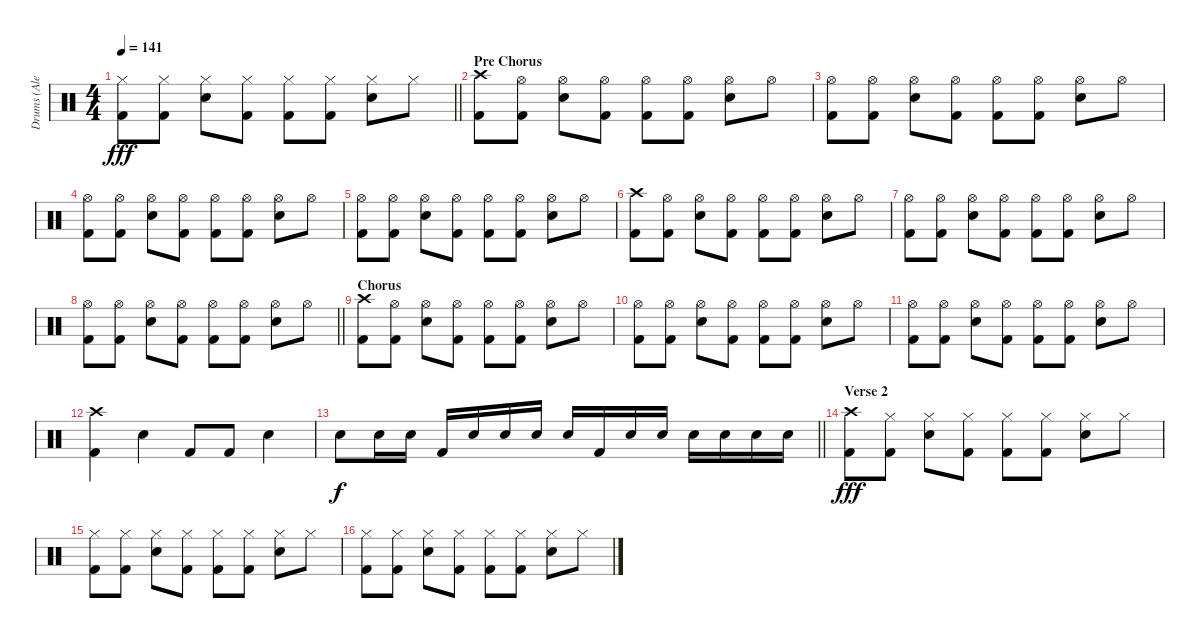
\track ("Drums (Alex Van Halen)" "Drums (Ale") {instrument percussion}
\staff {score}
\articulation defaults
\ts (4 4)
\tempo 141
\clef neutral
\barLineRight lightlight
\ks c
("Hi-Hat (closed)" "Kick (hit) 2").8{dy fff} ("Hi-Hat (closed)" "Kick (hit) 2").8 ("Hi-Hat (closed)" "Electric Snare (hit)").8 ("Hi-Hat (closed)" "Kick (hit) 2").8 ("Hi-Hat (closed)" "Kick (hit) 2").8 ("Hi-Hat (closed)" "Kick (hit) 2").8 ("Hi-Hat (closed)" "Electric Snare (hit)").8 "Hi-Hat (closed)".8 |
\section ("" "Pre Chorus")
("Crash high (hit)" "Kick (hit) 2").8 ("Hi-Hat (open)" "Kick (hit) 2").8 ("Hi-Hat (open)" "Electric Snare (hit)").8 ("Hi-Hat (open)" "Kick (hit) 2").8 ("Hi-Hat (open)" "Kick (hit) 2").8 ("Hi-Hat (open)" "Kick (hit) 2").8 ("Hi-Hat (open)" "Electric Snare (hit)").8 "Hi-Hat (open)".8 |
("Hi-Hat (open)" "Kick (hit) 2").8 ("Hi-Hat (open)" "Kick (hit) 2").8 ("Hi-Hat (open)" "Electric Snare (hit)").8 ("Hi-Hat (open)" "Kick (hit) 2").8 ("Hi-Hat (open)" "Kick (hit) 2").8 ("Hi-Hat (open)" "Kick (hit) 2").8 ("Hi-Hat (open)" "Electric Snare (hit)").8 "Hi-Hat (open)".8 |
("Hi-Hat (open)" "Kick (hit) 2").8 ("Hi-Hat (open)" "Kick (hit) 2").8 ("Hi-Hat (open)" "Electric Snare (hit)").8 ("Hi-Hat (open)" "Kick (hit) 2").8 ("Hi-Hat (open)" "Kick (hit) 2").8 ("Hi-Hat (open)" "Kick (hit) 2").8 ("Hi-Hat (open)" "Electric Snare (hit)").8 "Hi-Hat (open)".8 |
("Hi-Hat (open)" "Kick (hit) 2").8 ("Hi-Hat (open)" "Kick (hit) 2").8 ("Hi-Hat (open)" "Electric Snare (hit)").8 ("Hi-Hat (open)" "Kick (hit) 2").8 ("Hi-Hat (open)" "Kick (hit) 2").8 ("Hi-Hat (open)" "Kick (hit) 2").8 ("Hi-Hat (open)" "Electric Snare (hit)").8 "Hi-Hat (open)".8 |
("Crash high (hit)" "Kick (hit) 2").8 ("Hi-Hat (open)" "Kick (hit) 2").8 ("Hi-Hat (open)" "Electric Snare (hit)").8 ("Hi-Hat (open)" "Kick (hit) 2").8 ("Hi-Hat (open)" "Kick (hit) 2").8 ("Hi-Hat (open)" "Kick (hit) 2").8 ("Hi-Hat (open)" "Electric Snare (hit)").8 "Hi-Hat (open)".8 |
("Hi-Hat (open)" "Kick (hit) 2").8 ("Hi-Hat (open)" "Kick (hit) 2").8 ("Hi-Hat (open)" "Electric Snare (hit)").8 ("Hi-Hat (open)" "Kick (hit) 2").8 ("Hi-Hat (open)" "Kick (hit) 2").8 ("Hi-Hat (open)" "Kick (hit) 2").8 ("Hi-Hat (open)" "Electric Snare (hit)").8 "Hi-Hat (open)".8 |
\barLineRight lightlight
("Hi-Hat (open)" "Kick (hit) 2").8 ("Hi-Hat (open)" "Kick (hit) 2").8 ("Hi-Hat (open)" "Electric Snare (hit)").8 ("Hi-Hat (open)" "Kick (hit) 2").8 ("Hi-Hat (open)" "Kick (hit) 2").8 ("Hi-Hat (open)" "Kick (hit) 2").8 ("Hi-Hat (open)" "Electric Snare (hit)").8 "Hi-Hat (open)".8 |
\section ("" "Chorus")
("Crash high (hit)" "Kick (hit) 2").8 ("Hi-Hat (open)" "Kick (hit) 2").8 ("Hi-Hat (open)" "Electric Snare (hit)").8 ("Hi-Hat (open)" "Kick (hit) 2").8 ("Hi-Hat (open)" "Kick (hit) 2").8 ("Hi-Hat (open)" "Kick (hit) 2").8 ("Hi-Hat (open)" "Electric Snare (hit)").8 "Hi-Hat (open)".8 |
("Hi-Hat (open)" "Kick (hit) 2").8 ("Hi-Hat (open)" "Kick (hit) 2").8 ("Hi-Hat (open)" "Electric Snare (hit)").8 ("Hi-Hat (open)" "Kick (hit) 2").8 ("Hi-Hat (open)" "Kick (hit) 2").8 ("Hi-Hat (open)" "Kick (hit) 2").8 ("Hi-Hat (open)" "Electric Snare (hit)").8 "Hi-Hat (open)".8 |
("Hi-Hat (open)" "Kick (hit) 2").8 ("Hi-Hat (open)" "Kick (hit) 2").8 ("Hi-Hat (open)" "Electric Snare (hit)").8 ("Hi-Hat (open)" "Kick (hit) 2").8 ("Hi-Hat (open)" "Kick (hit) 2").8 ("Hi-Hat (open)" "Kick (hit) 2").8 ("Hi-Hat (open)" "Electric Snare (hit)").8 "Hi-Hat (open)".8 |
("Crash high (hit)" "Kick (hit) 2").4 "Electric Snare (hit)".4 "Kick (hit) 2".8 "Kick (hit) 2".8 "Electric Snare (hit)".4 |
\barLineRight lightlight "Electric Snare (hit)".8{dy f} "Electric Snare (hit)".16 "Electric Snare (hit)".16 "Kick (hit) 2".16 "Electric Snare (hit)".16 "Electric Snare (hit)".16 "Electric Snare (hit)".16 "Electric Snare (hit)".16 "Kick (hit) 2".16 "Electric Snare (hit)".16 "Electric Snare (hit)".16 "Electric Snare (hit)".16 "Electric Snare (hit)".16 "Electric Snare (hit)".16 "Electric Snare (hit)".16
|
\section ("" "Verse 2")
("Crash high (hit)" "Kick (hit) 2").8{dy fff} ("Hi-Hat (closed)" "Kick (hit) 2").8 ("Hi-Hat (closed)" "Electric Snare (hit)").8 ("Hi-Hat (closed)" "Kick (hit) 2").8 ("Hi-Hat (closed)" "Kick (hit) 2").8 ("Hi-Hat (closed)" "Kick (hit) 2").8 ("Hi-Hat (closed)" "Electric Snare (hit)").8 "Hi-Hat (closed)".8 |
("Hi-Hat (closed)" "Kick (hit) 2").8 ("Hi-Hat (closed)" "Kick (hit) 2").8 ("Hi-Hat (closed)" "Electric Snare (hit)").8 ("Hi-Hat (closed)" "Kick (hit) 2").8 ("Hi-Hat (closed)" "Kick (hit) 2").8 ("Hi-Hat (closed)" "Kick (hit) 2").8 ("Hi-Hat (closed)" "Electric Snare (hit)").8 "Hi-Hat (closed)".8 |
("Hi-Hat (closed)" "Kick (hit) 2").8 ("Hi-Hat (closed)" "Kick (hit) 2").8 ("Hi-Hat (closed)" "Electric Snare (hit)").8 ("Hi-Hat (closed)" "Kick (hit) 2").8 ("Hi-Hat (closed)" "Kick (hit) 2").8 ("Hi-Hat (closed)" "Kick (hit) 2").8 ("Hi-Hat (closed)" "Electric Snare (hit)").8 "Hi-Hat (closed)".8
